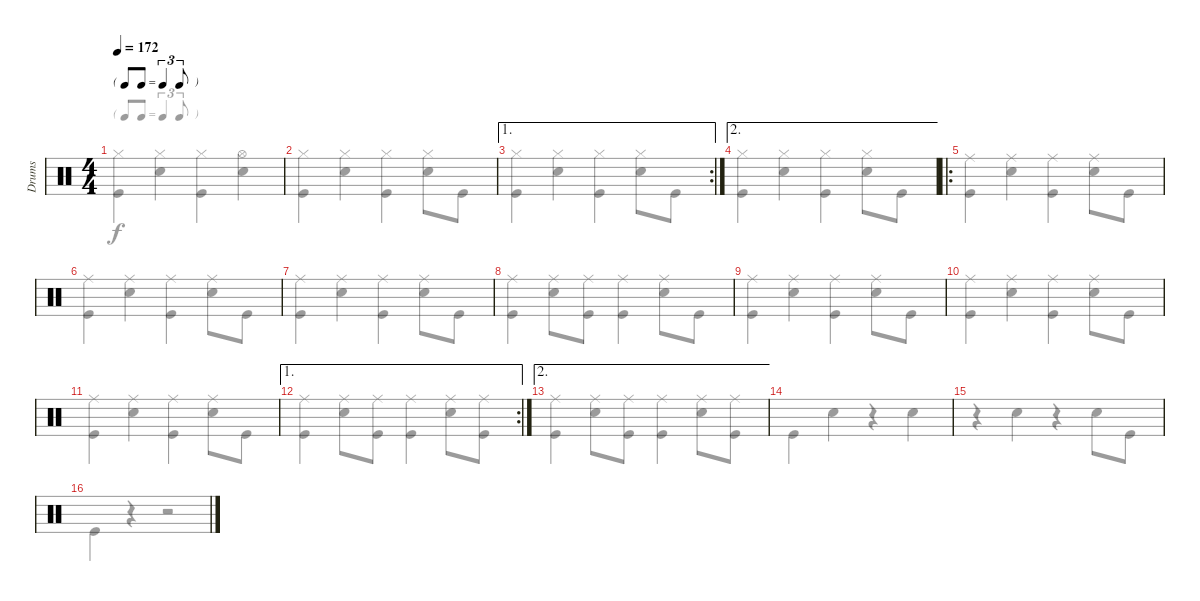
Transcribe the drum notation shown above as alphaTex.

\track ("Drums" "Drums") {instrument percussion}
\staff {score}
\articulation defaults
\voice
\ts (4 4)
\tf triplet8th
\tempo 172
\clef neutral
\ks c
|
|
\ae 1
\rc 2
|
\ae 2
|
\ro
|
|
|
|
|
|
|
\ae 1
\rc 2
|
\ae 2
|
|
|
\voice
\clef neutral
\ks c
("Hi-Hat (closed)" "Kick (hit)").4{dy f} ("Hi-Hat (closed)" "Snare (hit) 2").4 ("Hi-Hat (closed)" "Kick (hit)").4 ("Hi-Hat (open)" "Snare (hit) 2").4 |
("Hi-Hat (closed)" "Kick (hit)").4 ("Hi-Hat (closed)" "Snare (hit) 2").4 ("Hi-Hat (closed)" "Kick (hit)").4 ("Hi-Hat (closed)" "Snare (hit) 2").8 "Kick (hit)".8 |
("Hi-Hat (closed)" "Kick (hit)").4 ("Hi-Hat (closed)" "Snare (hit) 2").4 ("Hi-Hat (closed)" "Kick (hit)").4 ("Hi-Hat (closed)" "Snare (hit) 2").8 "Kick (hit)".8 |
("Hi-Hat (closed)" "Kick (hit)").4 ("Hi-Hat (closed)" "Snare (hit) 2").4 ("Hi-Hat (closed)" "Kick (hit)").4 ("Hi-Hat (closed)" "Snare (hit) 2").8 "Kick (hit)".8 |
("Ride (middle)" "Kick (hit)").4 ("Ride (middle)" "Snare (hit) 2").4 ("Ride (middle)" "Kick (hit)").4 ("Ride (middle)" "Snare (hit) 2").8 "Kick (hit)".8 |
("Ride (middle)" "Kick (hit)").4 ("Ride (middle)" "Snare (hit) 2").4 ("Ride (middle)" "Kick (hit)").4 ("Ride (middle)" "Snare (hit) 2").8 "Kick (hit)".8 |
("Ride (middle)" "Kick (hit)").4 ("Ride (middle)" "Snare (hit) 2").4 ("Ride (middle)" "Kick (hit)").4 ("Ride (middle)" "Snare (hit) 2").8 "Kick (hit)".8 |
("Ride (middle)" "Kick (hit)").4 ("Ride (middle)" "Snare (hit) 2").8 ("Ride (middle)" "Kick (hit)").8 ("Ride (middle)" "Kick (hit)").4 ("Ride (middle)" "Snare (hit) 2").8 "Kick (hit)".8 |
("Ride (middle)" "Kick (hit)").4 ("Ride (middle)" "Snare (hit) 2").4 ("Ride (middle)" "Kick (hit)").4 ("Ride (middle)" "Snare (hit) 2").8 "Kick (hit)".8 |
("Ride (middle)" "Kick (hit)").4 ("Ride (middle)" "Snare (hit) 2").4 ("Ride (middle)" "Kick (hit)").4 ("Ride (middle)" "Snare (hit) 2").8 "Kick (hit)".8 |
("Ride (middle)" "Kick (hit)").4 ("Ride (middle)" "Snare (hit) 2").4 ("Ride (middle)" "Kick (hit)").4 ("Ride (middle)" "Snare (hit) 2").8 "Kick (hit)".8 |
("Ride (middle)" "Kick (hit)").4 ("Ride (middle)" "Snare (hit) 2").8 ("Ride (middle)" "Kick (hit)").8 ("Ride (middle)" "Kick (hit)").4 ("Ride (middle)" "Snare (hit) 2").8 ("Ride (middle)" "Kick (hit)").8 |
("Ride (middle)" "Kick (hit)").4 ("Ride (middle)" "Snare (hit) 2").8 ("Ride (middle)" "Kick (hit)").8 ("Ride (middle)" "Kick (hit)").4 ("Ride (middle)" "Snare (hit) 2").8 ("Ride (middle)" "Kick (hit)").8 |
"Kick (hit)".4 "Snare (hit) 2".4 r.4 "Snare (hit) 2".4 |
r.4 "Snare (hit) 2".4 r.4 "Snare (hit) 2".8 "Kick (hit)".8 |
"Kick (hit)".4 r.4 r.2
